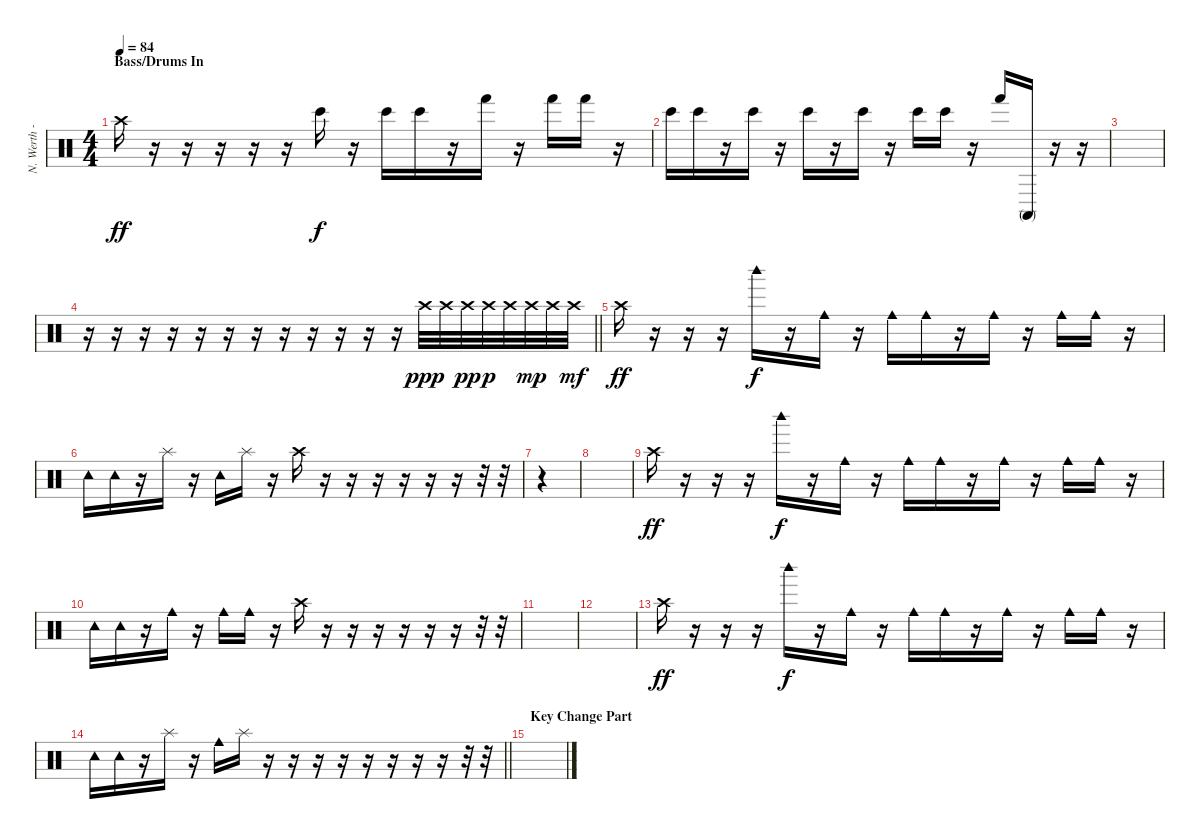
\track ("N. Werth - Percussion" "N. Werth -") {instrument percussion}
\staff {score}
\articulation defaults
\ts (4 4)
\section ("" "Bass/Drums In")
\tempo 84
\clef neutral
\ks c "Crash high (hit)".16{dy ff}
r.16 r.16 r.16 r.16 r.16 "Bongo High (hit)".16{dy f} r.16 "Bongo High (hit)".16 "Bongo High (hit)".16 r.16 "Hand (hit)".16 r.16 "Hand (hit)".16 "Hand (hit)".16 r.16 |
"Bongo High (hit)".16 "Bongo High (hit)".16 r.16 "Bongo High (hit)".16 r.16 "Bongo High (hit)".16 r.16 "Bongo High (hit)".16 r.16 "Bongo High (hit)".16 "Bongo High (hit)".16 r.16 "Hand (hit)".16 "Conga high (mute)".16 r.16 r.16 |
|
\barLineRight lightlight
r.16 r.16 r.16 r.16 r.16 r.16 r.16 r.16 r.16 r.16 r.16 r.16 "Crash high (hit)".32{dy ppp} "Crash high (hit)".32 "Crash high (hit)".32{dy pp} "Crash high (hit)".32{dy p} "Crash high (hit)".32 "Crash high (hit)".32{dy mp} "Crash high (hit)".32 "Crash high (hit)".32{dy mf} |
"Crash high (hit)".16{dy ff} r.16 r.16 r.16 "Woodblock high (hit)".16{dy f} r.16 "Cowbell medium (hit)".16 r.16 "Cowbell medium (hit)".16 "Cowbell medium (hit)".16 r.16 "Cowbell medium (hit)".16 r.16 "Cowbell medium (hit)".16 "Cowbell medium (hit)".16 r.16 |
"Tambourine (hit)".16 "Tambourine (hit)".16 r.16 "Splash (hit)".16 r.16 "Tambourine (hit)".16 "Splash (hit)".16 r.16 "Crash high (hit)".16 r.16 r.16 r.16 r.16 r.16 r.16 r.32 r.32 |
r.4 |
|
"Crash high (hit)".16{dy ff} r.16 r.16 r.16 "Woodblock high (hit)".16{dy f} r.16 "Cowbell medium (hit)".16 r.16 "Cowbell medium (hit)".16 "Cowbell medium (hit)".16 r.16 "Cowbell medium (hit)".16 r.16 "Cowbell medium (hit)".16 "Cowbell medium (hit)".16 r.16 |
"Tambourine (hit)".16 "Tambourine (hit)".16 r.16 "Cowbell medium (hit)".16 r.16 "Cowbell medium (hit)".16 "Cowbell medium (hit)".16 r.16 "Crash high (hit)".16 r.16 r.16 r.16 r.16 r.16 r.16 r.32 r.32 |
|
|
"Crash high (hit)".16{dy ff} r.16 r.16 r.16 "Woodblock high (hit)".16{dy f} r.16 "Cowbell medium (hit)".16 r.16 "Cowbell medium (hit)".16 "Cowbell medium (hit)".16 r.16 "Cowbell medium (hit)".16 r.16 "Cowbell medium (hit)".16 "Cowbell medium (hit)".16 r.16 |
\barLineRight lightlight "Tambourine (hit)".16 "Tambourine (hit)".16
r.16 "Splash (hit)".16 r.16 "Cowbell medium (hit)".16 "Splash (hit)".16 r.16 r.16 r.16 r.16 r.16 r.16 r.16 r.16 r.32 r.32 |
\section ("" "Key Change Part")
